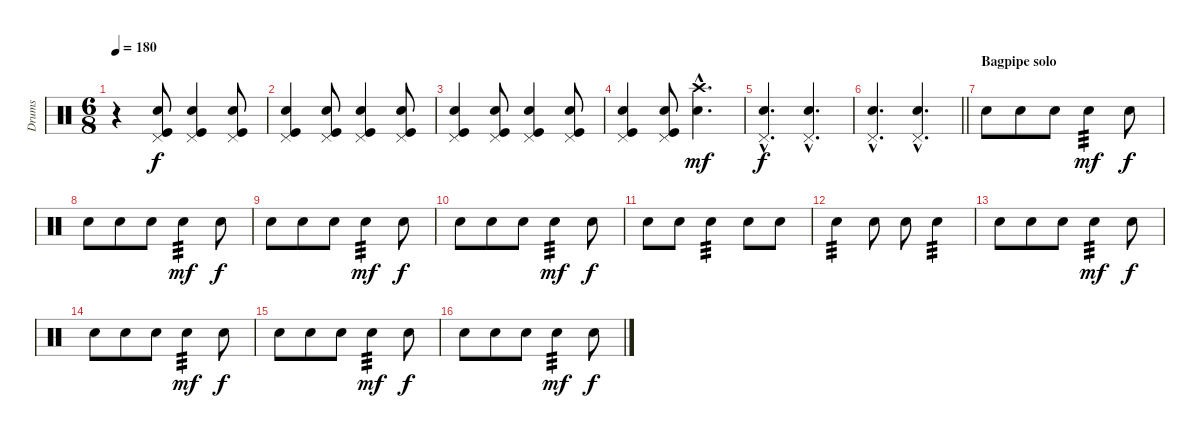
\track ("Drums" "Drums") {instrument percussion}
\staff {score}
\articulation defaults
\ts (6 8)
\tempo 180
\clef neutral
\ks c
r.4{dy f} ("Pedal Hi-Hat (hit)" "Electric Snare (hit)" "Kick (hit)").8 ("Pedal Hi-Hat (hit)" "Electric Snare (hit)" "Kick (hit)").4 ("Pedal Hi-Hat (hit)" "Electric Snare (hit)" "Kick (hit)").8 |
("Pedal Hi-Hat (hit)" "Electric Snare (hit)" "Kick (hit)").4 ("Pedal Hi-Hat (hit)" "Electric Snare (hit)" "Kick (hit)").8 ("Pedal Hi-Hat (hit)" "Electric Snare (hit)" "Kick (hit)").4 ("Pedal Hi-Hat (hit)" "Electric Snare (hit)" "Kick (hit)").8 |
("Pedal Hi-Hat (hit)" "Electric Snare (hit)" "Kick (hit)").4 ("Pedal Hi-Hat (hit)" "Electric Snare (hit)" "Kick (hit)").8 ("Pedal Hi-Hat (hit)" "Electric Snare (hit)" "Kick (hit)").4 ("Pedal Hi-Hat (hit)" "Electric Snare (hit)" "Kick (hit)").8 |
("Pedal Hi-Hat (hit)" "Electric Snare (hit)" "Kick (hit)").4 ("Pedal Hi-Hat (hit)" "Electric Snare (hit)" "Kick (hit)").8 ("Crash high (hit)"{hac} "Electric Snare (hit)"{hac}).4{d dy mf} |
("Pedal Hi-Hat (hit)"{hac} "Electric Snare (hit)"{hac}).4{d dy f} ("Pedal Hi-Hat (hit)"{hac} "Electric Snare (hit)"{hac}).4{d} |
\barLineRight lightlight
("Pedal Hi-Hat (hit)"{hac} "Electric Snare (hit)"{hac}).4{d} ("Pedal Hi-Hat (hit)"{hac} "Electric Snare (hit)"{hac}).4{d} |
\section ("" "Bagpipe solo")
"Electric Snare (hit)".8 "Electric Snare (hit)".8 "Electric Snare (hit)".8 "Electric Snare (hit)".4{tp 3 dy mf} "Electric Snare (hit)".8{dy f} |
"Electric Snare (hit)".8 "Electric Snare (hit)".8 "Electric Snare (hit)".8 "Electric Snare (hit)".4{tp 3 dy mf} "Electric Snare (hit)".8{dy f} |
"Electric Snare (hit)".8 "Electric Snare (hit)".8 "Electric Snare (hit)".8 "Electric Snare (hit)".4{tp 3 dy mf} "Electric Snare (hit)".8{dy f} |
"Electric Snare (hit)".8 "Electric Snare (hit)".8 "Electric Snare (hit)".8 "Electric Snare (hit)".4{tp 3 dy mf} "Electric Snare (hit)".8{dy f} |
"Electric Snare (hit)".8 "Electric Snare (hit)".8 "Electric Snare (hit)".4{tp 3} "Electric Snare (hit)".8 "Electric Snare (hit)".8 |
"Electric Snare (hit)".4{tp 3} "Electric Snare (hit)".8 "Electric Snare (hit)".8 "Electric Snare (hit)".4{tp 3} |
"Electric Snare (hit)".8 "Electric Snare (hit)".8 "Electric Snare (hit)".8 "Electric Snare (hit)".4{tp 3 dy mf} "Electric Snare (hit)".8{dy f} |
"Electric Snare (hit)".8 "Electric Snare (hit)".8 "Electric Snare (hit)".8 "Electric Snare (hit)".4{tp 3 dy mf} "Electric Snare (hit)".8{dy f} |
"Electric Snare (hit)".8 "Electric Snare (hit)".8 "Electric Snare (hit)".8 "Electric Snare (hit)".4{tp 3 dy mf} "Electric Snare (hit)".8{dy f} |
"Electric Snare (hit)".8 "Electric Snare (hit)".8 "Electric Snare (hit)".8 "Electric Snare (hit)".4{tp 3 dy mf} "Electric Snare (hit)".8{dy f}
